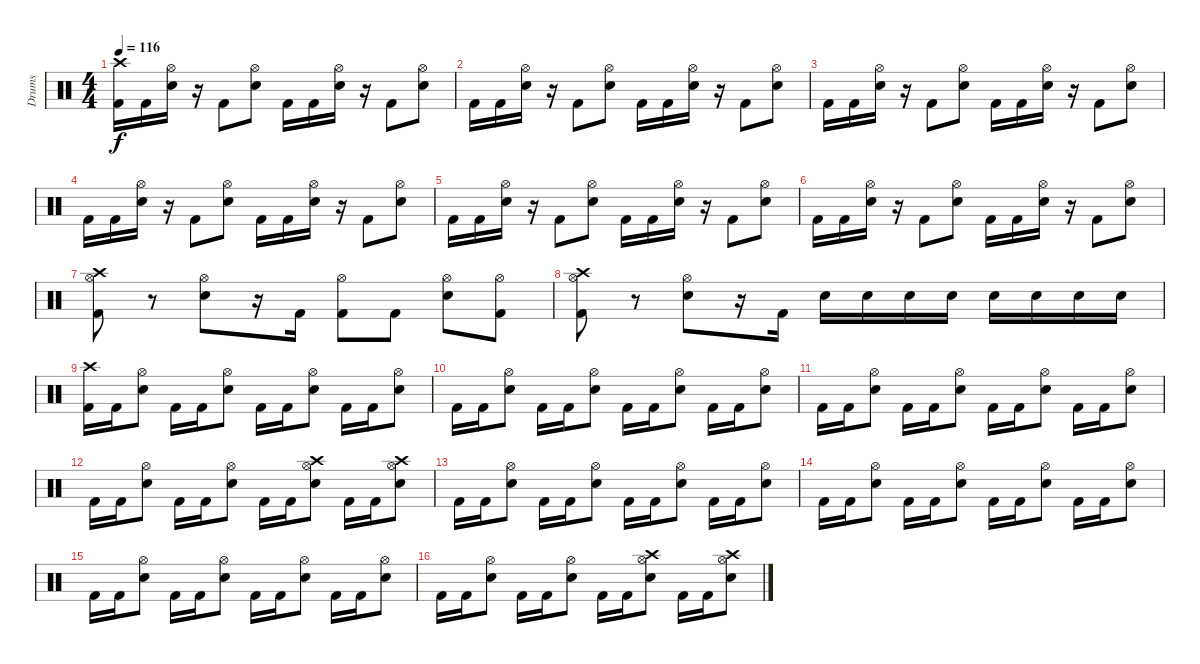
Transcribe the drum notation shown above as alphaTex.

\track ("Drums" "Drums") {instrument percussion}
\staff {score}
\articulation defaults
\ts (4 4)
\tempo 116
\clef neutral
\ks c
("Crash high (hit)" "Kick (hit) 2").16{dy f} "Kick (hit) 2".16 ("Hi-Hat (open)" "Snare (hit) 2").16 r.16 "Kick (hit) 2".8 ("Hi-Hat (open)" "Snare (hit) 2").8 "Kick (hit) 2".16 "Kick (hit) 2".16 ("Hi-Hat (open)" "Snare (hit) 2").16 r.16 "Kick (hit) 2".8 ("Hi-Hat (open)" "Snare (hit) 2").8 |
"Kick (hit) 2".16 "Kick (hit) 2".16 ("Hi-Hat (open)" "Snare (hit) 2").16 r.16 "Kick (hit) 2".8 ("Hi-Hat (open)" "Snare (hit) 2").8 "Kick (hit) 2".16 "Kick (hit) 2".16 ("Hi-Hat (open)" "Snare (hit) 2").16 r.16 "Kick (hit) 2".8 ("Hi-Hat (open)" "Snare (hit) 2").8 |
"Kick (hit) 2".16 "Kick (hit) 2".16 ("Hi-Hat (open)" "Snare (hit) 2").16 r.16 "Kick (hit) 2".8 ("Hi-Hat (open)" "Snare (hit) 2").8 "Kick (hit) 2".16 "Kick (hit) 2".16 ("Hi-Hat (open)" "Snare (hit) 2").16 r.16 "Kick (hit) 2".8 ("Hi-Hat (open)" "Snare (hit) 2").8 |
"Kick (hit) 2".16 "Kick (hit) 2".16 ("Hi-Hat (open)" "Snare (hit) 2").16 r.16 "Kick (hit) 2".8 ("Hi-Hat (open)" "Snare (hit) 2").8 "Kick (hit) 2".16 "Kick (hit) 2".16 ("Hi-Hat (open)" "Snare (hit) 2").16 r.16 "Kick (hit) 2".8 ("Hi-Hat (open)" "Snare (hit) 2").8 |
"Kick (hit) 2".16 "Kick (hit) 2".16 ("Hi-Hat (open)" "Snare (hit) 2").16 r.16 "Kick (hit) 2".8 ("Hi-Hat (open)" "Snare (hit) 2").8 "Kick (hit) 2".16 "Kick (hit) 2".16 ("Hi-Hat (open)" "Snare (hit) 2").16 r.16 "Kick (hit) 2".8 ("Hi-Hat (open)" "Snare (hit) 2").8 |
"Kick (hit) 2".16 "Kick (hit) 2".16 ("Hi-Hat (open)" "Snare (hit) 2").16 r.16 "Kick (hit) 2".8 ("Hi-Hat (open)" "Snare (hit) 2").8 "Kick (hit) 2".16 "Kick (hit) 2".16 ("Hi-Hat (open)" "Snare (hit) 2").16 r.16 "Kick (hit) 2".8 ("Hi-Hat (open)" "Snare (hit) 2").8 |
("Crash high (hit)" "Hi-Hat (open)" "Kick (hit) 2").8 r.8 ("Hi-Hat (open)" "Snare (hit) 2").8 r.16 "Kick (hit) 2".16 ("Hi-Hat (open)" "Kick (hit) 2").8 "Kick (hit) 2".8 ("Hi-Hat (open)" "Snare (hit) 2").8 ("Hi-Hat (open)" "Kick (hit) 2").8 |
("Crash high (hit)" "Hi-Hat (open)" "Kick (hit) 2").8 r.8 ("Hi-Hat (open)" "Snare (hit) 2").8 r.16 "Kick (hit) 2".16 "Snare (hit) 2".16 "Snare (hit) 2".16 "Snare (hit) 2".16 "Snare (hit) 2".16 "Snare (hit) 2".16 "Snare (hit) 2".16 "Snare (hit) 2".16 "Snare (hit) 2".16 |
("Crash high (hit)" "Kick (hit) 2").16{volume 13} "Kick (hit) 2".16 ("Hi-Hat (open)" "Snare (hit) 2").8 "Kick (hit) 2".16 "Kick (hit) 2".16 ("Hi-Hat (open)" "Snare (hit) 2").8 "Kick (hit) 2".16 "Kick (hit) 2".16 ("Hi-Hat (open)" "Snare (hit) 2").8 "Kick (hit) 2".16 "Kick (hit) 2".16 ("Hi-Hat (open)" "Snare (hit) 2").8 |
"Kick (hit) 2".16{volume 13} "Kick (hit) 2".16 ("Hi-Hat (open)" "Snare (hit) 2").8 "Kick (hit) 2".16 "Kick (hit) 2".16 ("Hi-Hat (open)" "Snare (hit) 2").8 "Kick (hit) 2".16 "Kick (hit) 2".16 ("Hi-Hat (open)" "Snare (hit) 2").8 "Kick (hit) 2".16 "Kick (hit) 2".16 ("Hi-Hat (open)" "Snare (hit) 2").8 |
"Kick (hit) 2".16{volume 13} "Kick (hit) 2".16 ("Hi-Hat (open)" "Snare (hit) 2").8 "Kick (hit) 2".16 "Kick (hit) 2".16 ("Hi-Hat (open)" "Snare (hit) 2").8 "Kick (hit) 2".16 "Kick (hit) 2".16 ("Hi-Hat (open)" "Snare (hit) 2").8 "Kick (hit) 2".16 "Kick (hit) 2".16 ("Hi-Hat (open)" "Snare (hit) 2").8 |
"Kick (hit) 2".16{volume 13} "Kick (hit) 2".16 ("Hi-Hat (open)" "Snare (hit) 2").8 "Kick (hit) 2".16 "Kick (hit) 2".16 ("Hi-Hat (open)" "Snare (hit) 2").8 "Kick (hit) 2".16 "Kick (hit) 2".16 ("Crash high (hit)" "Hi-Hat (open)" "Snare (hit) 2").8 "Kick (hit) 2".16 "Kick (hit) 2".16 ("Crash high (hit)" "Hi-Hat (open)" "Snare (hit) 2").8 |
"Kick (hit) 2".16{volume 13} "Kick (hit) 2".16 ("Hi-Hat (open)" "Snare (hit) 2").8 "Kick (hit) 2".16 "Kick (hit) 2".16 ("Hi-Hat (open)" "Snare (hit) 2").8 "Kick (hit) 2".16 "Kick (hit) 2".16 ("Hi-Hat (open)" "Snare (hit) 2").8 "Kick (hit) 2".16 "Kick (hit) 2".16 ("Hi-Hat (open)" "Snare (hit) 2").8 |
"Kick (hit) 2".16{volume 13} "Kick (hit) 2".16 ("Hi-Hat (open)" "Snare (hit) 2").8 "Kick (hit) 2".16 "Kick (hit) 2".16 ("Hi-Hat (open)" "Snare (hit) 2").8 "Kick (hit) 2".16 "Kick (hit) 2".16 ("Hi-Hat (open)" "Snare (hit) 2").8 "Kick (hit) 2".16 "Kick (hit) 2".16 ("Hi-Hat (open)" "Snare (hit) 2").8 |
"Kick (hit) 2".16{volume 13} "Kick (hit) 2".16 ("Hi-Hat (open)" "Snare (hit) 2").8 "Kick (hit) 2".16 "Kick (hit) 2".16 ("Hi-Hat (open)" "Snare (hit) 2").8 "Kick (hit) 2".16 "Kick (hit) 2".16 ("Hi-Hat (open)" "Snare (hit) 2").8 "Kick (hit) 2".16 "Kick (hit) 2".16 ("Hi-Hat (open)" "Snare (hit) 2").8 |
"Kick (hit) 2".16{volume 13} "Kick (hit) 2".16 ("Hi-Hat (open)" "Snare (hit) 2").8 "Kick (hit) 2".16 "Kick (hit) 2".16 ("Hi-Hat (open)" "Snare (hit) 2").8 "Kick (hit) 2".16 "Kick (hit) 2".16 ("Crash high (hit)" "Hi-Hat (open)" "Snare (hit) 2").8 "Kick (hit) 2".16 "Kick (hit) 2".16 ("Crash high (hit)" "Hi-Hat (open)" "Snare (hit) 2").8
